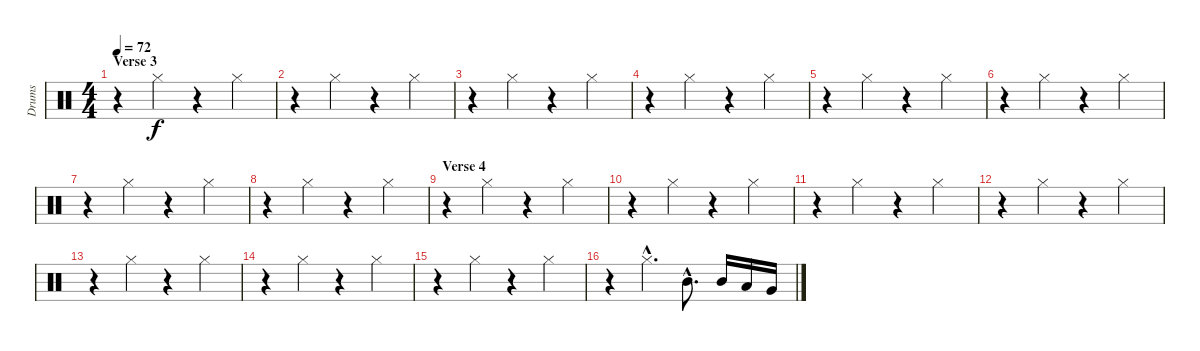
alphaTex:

\track ("Drums" "Drums") {instrument percussion}
\staff {score}
\articulation defaults
\ts (4 4)
\section ("" "Verse 3")
\tempo 72
\clef neutral
\ks c
r.4{dy mf} "Hi-Hat (closed)".4{dy f} r.4 "Hi-Hat (closed)".4 |
r.4 "Hi-Hat (closed)".4 r.4 "Hi-Hat (closed)".4 |
r.4 "Hi-Hat (closed)".4 r.4 "Hi-Hat (closed)".4 |
r.4 "Hi-Hat (closed)".4 r.4 "Hi-Hat (closed)".4 |
r.4 "Hi-Hat (closed)".4 r.4 "Hi-Hat (closed)".4 |
r.4 "Hi-Hat (closed)".4 r.4 "Hi-Hat (closed)".4 |
r.4 "Hi-Hat (closed)".4 r.4 "Hi-Hat (closed)".4 |
r.4 "Hi-Hat (closed)".4 r.4 "Hi-Hat (closed)".4 |
\section ("" "Verse 4")
r.4 "Hi-Hat (closed)".4 r.4 "Hi-Hat (closed)".4 |
r.4 "Hi-Hat (closed)".4 r.4 "Hi-Hat (closed)".4 |
r.4 "Hi-Hat (closed)".4 r.4 "Hi-Hat (closed)".4 |
r.4 "Hi-Hat (closed)".4 r.4 "Hi-Hat (closed)".4 |
r.4 "Hi-Hat (closed)".4 r.4 "Hi-Hat (closed)".4 |
r.4 "Hi-Hat (closed)".4 r.4 "Hi-Hat (closed)".4 |
r.4 "Hi-Hat (closed)".4 r.4 "Hi-Hat (closed)".4 |
r.4 "Hi-Hat (closed)"{hac}.4{d} "Mid Tom (hit)"{hac}.8{d} "Mid Tom (hit)".16 "Low Tom (hit)".16 "Very Low Tom (hit)".16
